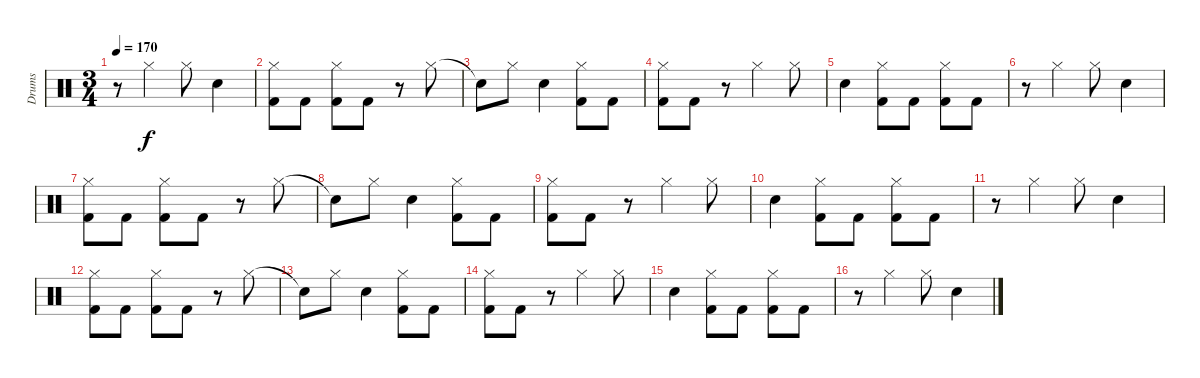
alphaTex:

\track ("Drums" "Drums") {instrument percussion}
\staff {score}
\articulation defaults
\ts (3 4)
\tempo 170
\clef neutral
\ks c
r.8{dy f} "Hi-Hat (closed)".4 "Hi-Hat (closed)".8 "Electric Snare (hit)".4 |
("Hi-Hat (closed)" "Kick (hit) 2").8 "Kick (hit) 2".8 ("Hi-Hat (closed)" "Kick (hit) 2").8 "Kick (hit) 2".8 r.8 "Hi-Hat (closed)".8 |
"Snare (hit)"{t}.8 "Hi-Hat (closed)".8 "Electric Snare (hit)".4 ("Hi-Hat (closed)" "Kick (hit) 2").8 "Kick (hit) 2".8 |
("Hi-Hat (closed)" "Kick (hit) 2").8 "Kick (hit) 2".8 r.8 "Hi-Hat (closed)".4 "Hi-Hat (closed)".8 |
"Electric Snare (hit)".4 ("Hi-Hat (closed)" "Kick (hit) 2").8 "Kick (hit) 2".8 ("Hi-Hat (closed)" "Kick (hit) 2").8 "Kick (hit) 2".8 |
r.8 "Hi-Hat (closed)".4 "Hi-Hat (closed)".8 "Electric Snare (hit)".4 |
("Hi-Hat (closed)" "Kick (hit) 2").8 "Kick (hit) 2".8 ("Hi-Hat (closed)" "Kick (hit) 2").8 "Kick (hit) 2".8 r.8 "Hi-Hat (closed)".8 |
"Snare (hit)"{t}.8 "Hi-Hat (closed)".8 "Electric Snare (hit)".4 ("Hi-Hat (closed)" "Kick (hit) 2").8 "Kick (hit) 2".8 |
("Hi-Hat (closed)" "Kick (hit) 2").8 "Kick (hit) 2".8 r.8 "Hi-Hat (closed)".4 "Hi-Hat (closed)".8 |
"Electric Snare (hit)".4 ("Hi-Hat (closed)" "Kick (hit) 2").8 "Kick (hit) 2".8 ("Hi-Hat (closed)" "Kick (hit) 2").8 "Kick (hit) 2".8 |
r.8 "Hi-Hat (closed)".4 "Hi-Hat (closed)".8 "Electric Snare (hit)".4 |
("Hi-Hat (closed)" "Kick (hit) 2").8 "Kick (hit) 2".8 ("Hi-Hat (closed)" "Kick (hit) 2").8 "Kick (hit) 2".8 r.8 "Hi-Hat (closed)".8 |
"Snare (hit)"{t}.8 "Hi-Hat (closed)".8 "Electric Snare (hit)".4 ("Hi-Hat (closed)" "Kick (hit) 2").8 "Kick (hit) 2".8 |
("Hi-Hat (closed)" "Kick (hit) 2").8 "Kick (hit) 2".8 r.8 "Hi-Hat (closed)".4 "Hi-Hat (closed)".8 |
"Electric Snare (hit)".4 ("Hi-Hat (closed)" "Kick (hit) 2").8 "Kick (hit) 2".8 ("Hi-Hat (closed)" "Kick (hit) 2").8 "Kick (hit) 2".8 |
r.8 "Hi-Hat (closed)".4 "Hi-Hat (closed)".8 "Electric Snare (hit)".4
